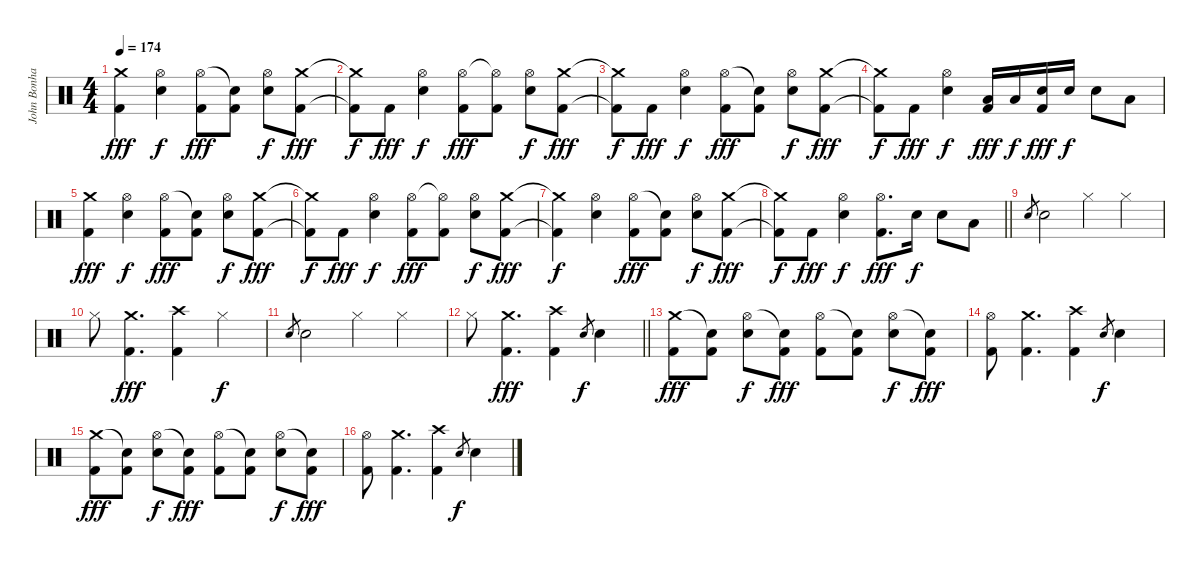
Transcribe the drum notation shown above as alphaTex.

\track ("John Bonham - Drums" "John Bonha") {instrument percussion}
\staff {score}
\articulation defaults
\ts (4 4)
\tempo 174
\clef neutral
\ks c
("Crash medium (hit)" "Kick (hit) 2").4{dy fff} ("Hi-Hat (open)" "Snare (hit) 2").4{dy f} ("Hi-Hat (open)" "Kick (hit) 2").8{dy fff} ("Snare (hit)"{t} "Kick (hit) 2").8 ("Hi-Hat (open)" "Snare (hit) 2").8{dy f} ("Crash medium (hit)" "Kick (hit) 2").8{dy fff} |
("Crash medium (hit)"{t} "Kick (hit) 2"{t}).8{dy f} "Kick (hit) 2".8{dy fff} ("Hi-Hat (open)" "Snare (hit) 2").4{dy f} ("Hi-Hat (open)" "Kick (hit) 2").8{dy fff} ("Hi-Hat (open)"{t} "Kick (hit) 2").8 ("Hi-Hat (open)" "Snare (hit) 2").8{dy f} ("Crash medium (hit)" "Kick (hit) 2").8{dy fff} |
("Crash medium (hit)"{t} "Kick (hit) 2"{t}).8{dy f} "Kick (hit) 2".8{dy fff} ("Hi-Hat (open)" "Snare (hit) 2").4{dy f} ("Hi-Hat (open)" "Kick (hit) 2").8{dy fff} ("Snare (hit)"{t} "Kick (hit) 2").8 ("Hi-Hat (open)" "Snare (hit) 2").8{dy f} ("Crash medium (hit)" "Kick (hit) 2").8{dy fff} |
("Crash medium (hit)"{t} "Kick (hit) 2"{t}).8{dy f} "Kick (hit) 2".8{dy fff} ("Hi-Hat (open)" "Snare (hit) 2").4{dy f} ("Low Tom (hit)" "Kick (hit) 2").16{dy fff} "Low Tom (hit)".16{dy f} ("Snare (hit) 2" "Kick (hit) 2").16{dy fff} "Snare (hit) 2".16{dy f} "Snare (hit) 2".8 "Low Tom (hit)".8 |
("Crash medium (hit)" "Kick (hit) 2").4{dy fff} ("Hi-Hat (open)" "Snare (hit) 2").4{dy f} ("Hi-Hat (open)" "Kick (hit) 2").8{dy fff} ("Snare (hit)"{t} "Kick (hit) 2").8 ("Hi-Hat (open)" "Snare (hit) 2").8{dy f} ("Crash medium (hit)" "Kick (hit) 2").8{dy fff} |
("Crash medium (hit)"{t} "Kick (hit) 2"{t}).8{dy f} "Kick (hit) 2".8{dy fff} ("Hi-Hat (open)" "Snare (hit) 2").4{dy f} ("Hi-Hat (open)" "Kick (hit) 2").8{dy fff} ("Hi-Hat (open)"{t} "Kick (hit) 2").8 ("Hi-Hat (open)" "Snare (hit) 2").8{dy f} ("Crash medium (hit)" "Kick (hit) 2").8{dy fff} |
("Crash medium (hit)"{t} "Kick (hit) 2"{t}).4{dy f} ("Hi-Hat (open)" "Snare (hit) 2").4 ("Hi-Hat (open)" "Kick (hit) 2").8{dy fff} ("Snare (hit)"{t} "Kick (hit) 2").8 ("Hi-Hat (open)" "Snare (hit) 2").8{dy f} ("Crash medium (hit)" "Kick (hit) 2").8{dy fff} |
\barLineRight lightlight
("Crash medium (hit)"{t} "Kick (hit) 2"{t}).8{dy f} "Kick (hit) 2".8{dy fff} ("Hi-Hat (open)" "Snare (hit) 2").4{dy f} ("Hi-Hat (open)" "Kick (hit) 2").8{d dy fff} "Snare (hit) 2".16{dy f} "Snare (hit) 2".8 "Low Tom (hit)".8 |
"Snare (hit) 2".8{gr} "Snare (hit) 2".2 "Hi-Hat (closed)".4 "Hi-Hat (closed)".4 |
"Hi-Hat (closed)".8 ("Crash medium (hit)" "Kick (hit) 2").4{d dy fff} ("Crash high (hit)" "Kick (hit) 2").4 "Hi-Hat (closed)".4{dy f} |
"Snare (hit) 2".8{gr} "Snare (hit) 2".2 "Hi-Hat (closed)".4 "Hi-Hat (closed)".4 |
\barLineRight lightlight "Hi-Hat (closed)".8
("Crash medium (hit)" "Kick (hit) 2").4{d dy fff} ("Crash high (hit)" "Kick (hit) 2").4 "Snare (hit) 2".8{gr dy f} "Snare (hit) 2".4 |
("Crash medium (hit)" "Kick (hit) 2").8{dy fff} ("Snare (hit)"{t} "Kick (hit) 2").8 ("Hi-Hat (open)" "Snare (hit) 2").8{dy f} ("Snare (hit)"{t} "Kick (hit) 2").8{dy fff} ("Hi-Hat (open)" "Kick (hit) 2").8 ("Snare (hit)"{t} "Kick (hit) 2").8 ("Hi-Hat (open)" "Snare (hit) 2").8{dy f} ("Snare (hit)"{t} "Kick (hit) 2").8{dy fff} |
("Hi-Hat (open)" "Kick (hit) 2").8 ("Crash medium (hit)" "Kick (hit) 2").4{d} ("Crash high (hit)" "Kick (hit) 2").4 "Snare (hit) 2".8{gr dy f} "Snare (hit) 2".4 |
("Crash medium (hit)" "Kick (hit) 2").8{dy fff} ("Snare (hit)"{t} "Kick (hit) 2").8 ("Hi-Hat (open)" "Snare (hit) 2").8{dy f} ("Snare (hit)"{t} "Kick (hit) 2").8{dy fff} ("Hi-Hat (open)" "Kick (hit) 2").8 ("Snare (hit)"{t} "Kick (hit) 2").8 ("Hi-Hat (open)" "Snare (hit) 2").8{dy f} ("Snare (hit)"{t} "Kick (hit) 2").8{dy fff} |
("Hi-Hat (open)" "Kick (hit) 2").8 ("Crash medium (hit)" "Kick (hit) 2").4{d} ("Crash high (hit)" "Kick (hit) 2").4 "Snare (hit) 2".8{gr dy f} "Snare (hit) 2".4
